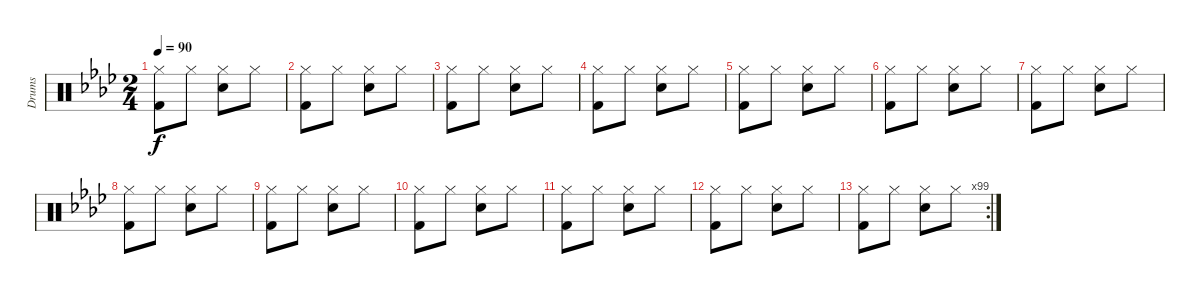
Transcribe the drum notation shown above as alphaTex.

\track ("Drums" "Drums") {instrument percussion}
\staff {score}
\articulation defaults
\ts (2 4)
\tempo 90
\clef neutral
\ks fminor
("Hi-Hat (closed)" "Kick (hit) 2").8{dy f} "Hi-Hat (closed)".8 ("Hi-Hat (closed)" "Electric Snare (hit)").8 "Hi-Hat (closed)".8 |
("Hi-Hat (closed)" "Kick (hit) 2").8 "Hi-Hat (closed)".8 ("Hi-Hat (closed)" "Electric Snare (hit)").8 "Hi-Hat (closed)".8 |
("Hi-Hat (closed)" "Kick (hit) 2").8 "Hi-Hat (closed)".8 ("Hi-Hat (closed)" "Electric Snare (hit)").8 "Hi-Hat (closed)".8 |
("Hi-Hat (closed)" "Kick (hit) 2").8 "Hi-Hat (closed)".8 ("Hi-Hat (closed)" "Electric Snare (hit)").8 "Hi-Hat (closed)".8 |
("Hi-Hat (closed)" "Kick (hit) 2").8 "Hi-Hat (closed)".8 ("Hi-Hat (closed)" "Electric Snare (hit)").8 "Hi-Hat (closed)".8 |
("Hi-Hat (closed)" "Kick (hit) 2").8 "Hi-Hat (closed)".8 ("Hi-Hat (closed)" "Electric Snare (hit)").8 "Hi-Hat (closed)".8 |
("Hi-Hat (closed)" "Kick (hit) 2").8 "Hi-Hat (closed)".8 ("Hi-Hat (closed)" "Electric Snare (hit)").8 "Hi-Hat (closed)".8 |
("Hi-Hat (closed)" "Kick (hit) 2").8 "Hi-Hat (closed)".8 ("Hi-Hat (closed)" "Electric Snare (hit)").8 "Hi-Hat (closed)".8 |
("Hi-Hat (closed)" "Kick (hit) 2").8 "Hi-Hat (closed)".8 ("Hi-Hat (closed)" "Electric Snare (hit)").8 "Hi-Hat (closed)".8 |
("Hi-Hat (closed)" "Kick (hit) 2").8 "Hi-Hat (closed)".8 ("Hi-Hat (closed)" "Electric Snare (hit)").8 "Hi-Hat (closed)".8 |
("Hi-Hat (closed)" "Kick (hit) 2").8 "Hi-Hat (closed)".8 ("Hi-Hat (closed)" "Electric Snare (hit)").8 "Hi-Hat (closed)".8 |
("Hi-Hat (closed)" "Kick (hit) 2").8 "Hi-Hat (closed)".8 ("Hi-Hat (closed)" "Electric Snare (hit)").8 "Hi-Hat (closed)".8 |
\rc 99
("Hi-Hat (closed)" "Kick (hit) 2").8 "Hi-Hat (closed)".8 ("Hi-Hat (closed)" "Electric Snare (hit)").8 "Hi-Hat (closed)".8
